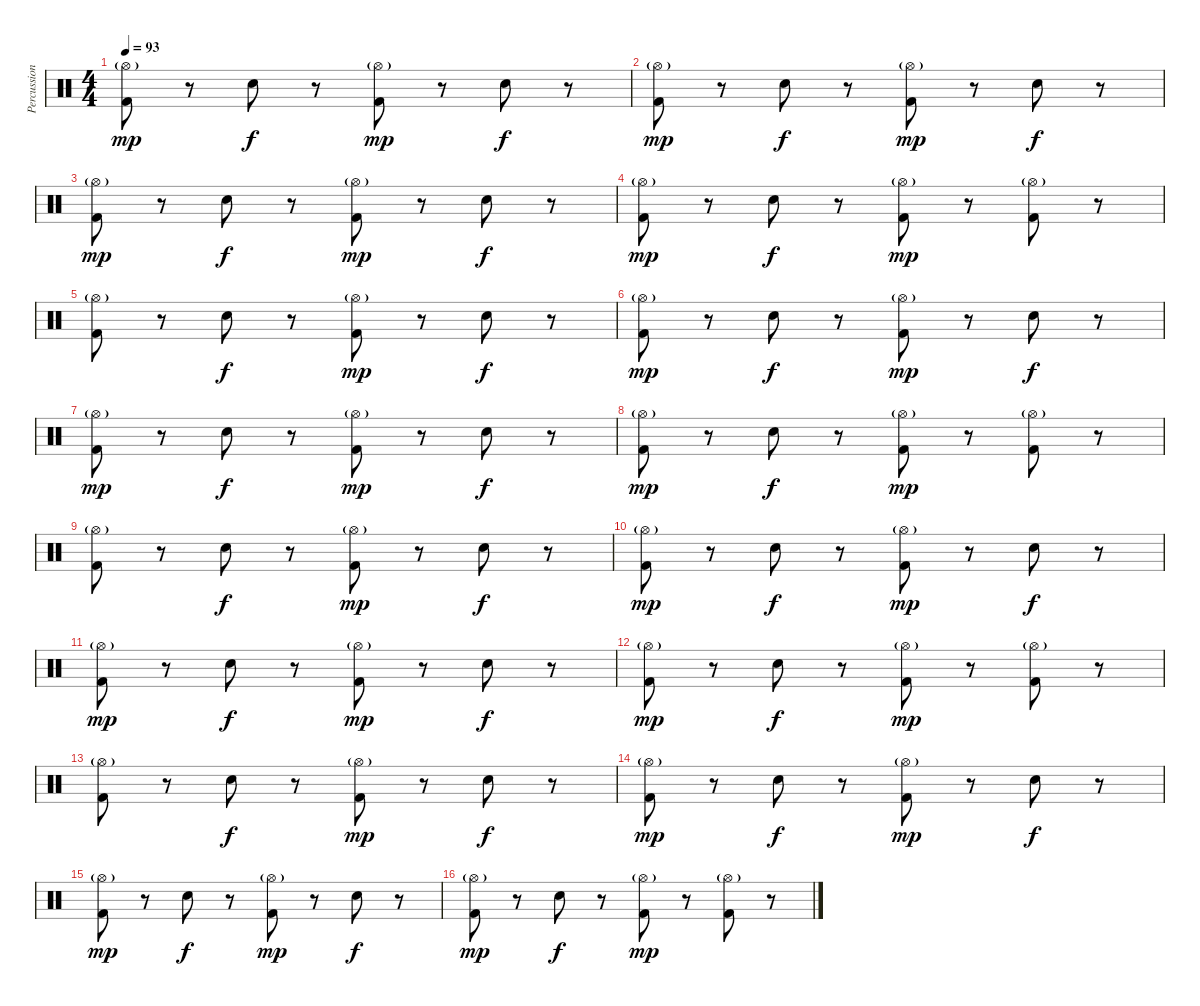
\track ("Percussion" "Percussion") {instrument percussion}
\staff {score}
\articulation defaults
\ts (4 4)
\tempo 93
\clef neutral
\ks c
("Hi-Hat (open)"{g} "Kick (hit) 2").8{dy mp} r.8 "Snare (hit) 2".8{dy f} r.8 ("Hi-Hat (open)"{g} "Kick (hit) 2").8{dy mp} r.8 "Snare (hit) 2".8{dy f} r.8 |
("Hi-Hat (open)"{g} "Kick (hit) 2").8{dy mp} r.8 "Snare (hit) 2".8{dy f} r.8 ("Hi-Hat (open)"{g} "Kick (hit) 2").8{dy mp} r.8 "Snare (hit) 2".8{dy f} r.8 |
("Hi-Hat (open)"{g} "Kick (hit) 2").8{dy mp} r.8 "Snare (hit) 2".8{dy f} r.8 ("Hi-Hat (open)"{g} "Kick (hit) 2").8{dy mp} r.8 "Snare (hit) 2".8{dy f} r.8 |
("Hi-Hat (open)"{g} "Kick (hit) 2").8{dy mp} r.8 "Snare (hit) 2".8{dy f} r.8 ("Hi-Hat (open)"{g} "Kick (hit) 2").8{dy mp} r.8 ("Hi-Hat (open)"{g} "Kick (hit) 2").8 r.8 |
("Hi-Hat (open)"{g} "Kick (hit) 2").8 r.8 "Snare (hit) 2".8{dy f} r.8 ("Hi-Hat (open)"{g} "Kick (hit) 2").8{dy mp} r.8 "Snare (hit) 2".8{dy f} r.8 |
("Hi-Hat (open)"{g} "Kick (hit) 2").8{dy mp} r.8 "Snare (hit) 2".8{dy f} r.8 ("Hi-Hat (open)"{g} "Kick (hit) 2").8{dy mp} r.8 "Snare (hit) 2".8{dy f} r.8 |
("Hi-Hat (open)"{g} "Kick (hit) 2").8{dy mp} r.8 "Snare (hit) 2".8{dy f} r.8 ("Hi-Hat (open)"{g} "Kick (hit) 2").8{dy mp} r.8 "Snare (hit) 2".8{dy f} r.8 |
("Hi-Hat (open)"{g} "Kick (hit) 2").8{dy mp} r.8 "Snare (hit) 2".8{dy f} r.8 ("Hi-Hat (open)"{g} "Kick (hit) 2").8{dy mp} r.8 ("Hi-Hat (open)"{g} "Kick (hit) 2").8 r.8 |
("Hi-Hat (open)"{g} "Kick (hit) 2").8 r.8 "Snare (hit) 2".8{dy f} r.8 ("Hi-Hat (open)"{g} "Kick (hit) 2").8{dy mp} r.8 "Snare (hit) 2".8{dy f} r.8 |
("Hi-Hat (open)"{g} "Kick (hit) 2").8{dy mp} r.8 "Snare (hit) 2".8{dy f} r.8 ("Hi-Hat (open)"{g} "Kick (hit) 2").8{dy mp} r.8 "Snare (hit) 2".8{dy f} r.8 |
("Hi-Hat (open)"{g} "Kick (hit) 2").8{dy mp} r.8 "Snare (hit) 2".8{dy f} r.8 ("Hi-Hat (open)"{g} "Kick (hit) 2").8{dy mp} r.8 "Snare (hit) 2".8{dy f} r.8 |
("Hi-Hat (open)"{g} "Kick (hit) 2").8{dy mp} r.8 "Snare (hit) 2".8{dy f} r.8 ("Hi-Hat (open)"{g} "Kick (hit) 2").8{dy mp} r.8 ("Hi-Hat (open)"{g} "Kick (hit) 2").8 r.8 |
("Hi-Hat (open)"{g} "Kick (hit) 2").8 r.8 "Snare (hit) 2".8{dy f} r.8 ("Hi-Hat (open)"{g} "Kick (hit) 2").8{dy mp} r.8 "Snare (hit) 2".8{dy f} r.8 |
("Hi-Hat (open)"{g} "Kick (hit) 2").8{dy mp} r.8 "Snare (hit) 2".8{dy f} r.8 ("Hi-Hat (open)"{g} "Kick (hit) 2").8{dy mp} r.8 "Snare (hit) 2".8{dy f} r.8 |
("Hi-Hat (open)"{g} "Kick (hit) 2").8{dy mp} r.8 "Snare (hit) 2".8{dy f} r.8 ("Hi-Hat (open)"{g} "Kick (hit) 2").8{dy mp} r.8 "Snare (hit) 2".8{dy f} r.8 |
("Hi-Hat (open)"{g} "Kick (hit) 2").8{dy mp} r.8 "Snare (hit) 2".8{dy f} r.8 ("Hi-Hat (open)"{g} "Kick (hit) 2").8{dy mp} r.8 ("Hi-Hat (open)"{g} "Kick (hit) 2").8 r.8
